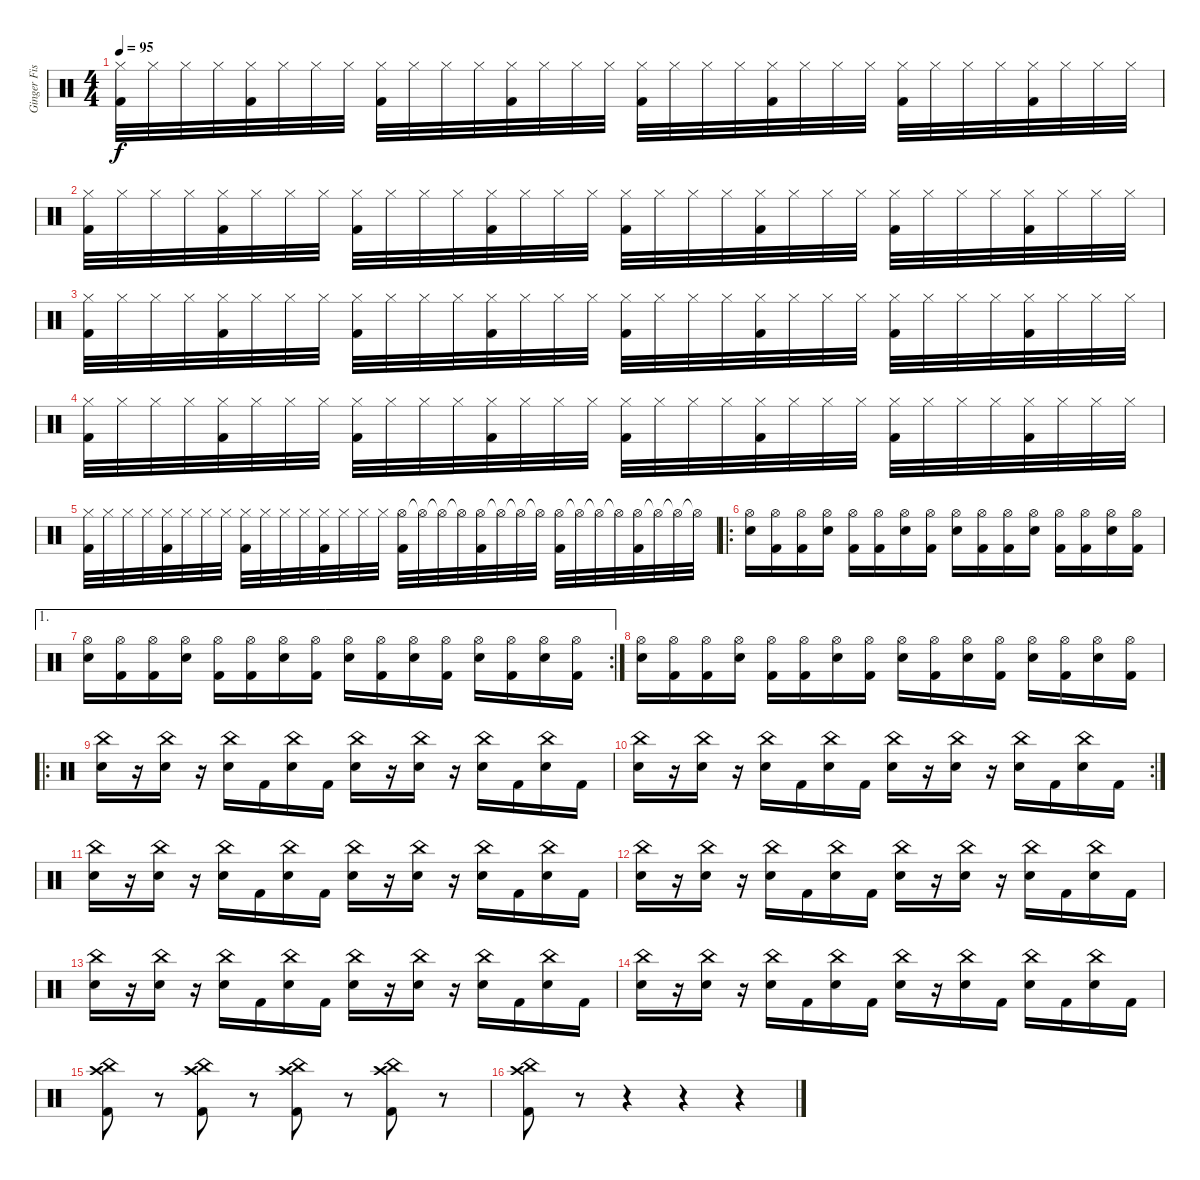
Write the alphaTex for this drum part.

\track ("Ginger Fish" "Ginger Fis") {instrument percussion}
\staff {score}
\articulation defaults
\ts (4 4)
\tempo 95
\clef neutral
\ks c
("Hi-Hat (closed)" "Kick (hit) 2").32{dy f} "Hi-Hat (closed)".32 "Hi-Hat (closed)".32 "Hi-Hat (closed)".32 ("Hi-Hat (closed)" "Kick (hit) 2").32 "Hi-Hat (closed)".32 "Hi-Hat (closed)".32 "Hi-Hat (closed)".32 ("Hi-Hat (closed)" "Kick (hit) 2").32 "Hi-Hat (closed)".32 "Hi-Hat (closed)".32 "Hi-Hat (closed)".32 ("Hi-Hat (closed)" "Kick (hit) 2").32 "Hi-Hat (closed)".32 "Hi-Hat (closed)".32 "Hi-Hat (closed)".32 ("Hi-Hat (closed)" "Kick (hit) 2").32 "Hi-Hat (closed)".32 "Hi-Hat (closed)".32 "Hi-Hat (closed)".32 ("Hi-Hat (closed)" "Kick (hit) 2").32 "Hi-Hat (closed)".32 "Hi-Hat (closed)".32 "Hi-Hat (closed)".32 ("Hi-Hat (closed)" "Kick (hit) 2").32 "Hi-Hat (closed)".32 "Hi-Hat (closed)".32 "Hi-Hat (closed)".32 ("Hi-Hat (closed)" "Kick (hit) 2").32 "Hi-Hat (closed)".32 "Hi-Hat (closed)".32 "Hi-Hat (closed)".32 |
("Hi-Hat (closed)" "Kick (hit) 2").32 "Hi-Hat (closed)".32 "Hi-Hat (closed)".32 "Hi-Hat (closed)".32 ("Hi-Hat (closed)" "Kick (hit) 2").32 "Hi-Hat (closed)".32 "Hi-Hat (closed)".32 "Hi-Hat (closed)".32 ("Hi-Hat (closed)" "Kick (hit) 2").32 "Hi-Hat (closed)".32 "Hi-Hat (closed)".32 "Hi-Hat (closed)".32 ("Hi-Hat (closed)" "Kick (hit) 2").32 "Hi-Hat (closed)".32 "Hi-Hat (closed)".32 "Hi-Hat (closed)".32 ("Hi-Hat (closed)" "Kick (hit) 2").32 "Hi-Hat (closed)".32 "Hi-Hat (closed)".32 "Hi-Hat (closed)".32 ("Hi-Hat (closed)" "Kick (hit) 2").32 "Hi-Hat (closed)".32 "Hi-Hat (closed)".32 "Hi-Hat (closed)".32 ("Hi-Hat (closed)" "Kick (hit) 2").32 "Hi-Hat (closed)".32 "Hi-Hat (closed)".32 "Hi-Hat (closed)".32 ("Hi-Hat (closed)" "Kick (hit) 2").32 "Hi-Hat (closed)".32 "Hi-Hat (closed)".32 "Hi-Hat (closed)".32 |
("Hi-Hat (closed)" "Kick (hit) 2").32 "Hi-Hat (closed)".32 "Hi-Hat (closed)".32 "Hi-Hat (closed)".32 ("Hi-Hat (closed)" "Kick (hit) 2").32 "Hi-Hat (closed)".32 "Hi-Hat (closed)".32 "Hi-Hat (closed)".32 ("Hi-Hat (closed)" "Kick (hit) 2").32 "Hi-Hat (closed)".32 "Hi-Hat (closed)".32 "Hi-Hat (closed)".32 ("Hi-Hat (closed)" "Kick (hit) 2").32 "Hi-Hat (closed)".32 "Hi-Hat (closed)".32 "Hi-Hat (closed)".32 ("Hi-Hat (closed)" "Kick (hit) 2").32 "Hi-Hat (closed)".32 "Hi-Hat (closed)".32 "Hi-Hat (closed)".32 ("Hi-Hat (closed)" "Kick (hit) 2").32 "Hi-Hat (closed)".32 "Hi-Hat (closed)".32 "Hi-Hat (closed)".32 ("Hi-Hat (closed)" "Kick (hit) 2").32 "Hi-Hat (closed)".32 "Hi-Hat (closed)".32 "Hi-Hat (closed)".32 ("Hi-Hat (closed)" "Kick (hit) 2").32 "Hi-Hat (closed)".32 "Hi-Hat (closed)".32 "Hi-Hat (closed)".32 |
("Hi-Hat (closed)" "Kick (hit) 2").32 "Hi-Hat (closed)".32 "Hi-Hat (closed)".32 "Hi-Hat (closed)".32 ("Hi-Hat (closed)" "Kick (hit) 2").32 "Hi-Hat (closed)".32 "Hi-Hat (closed)".32 "Hi-Hat (closed)".32 ("Hi-Hat (closed)" "Kick (hit) 2").32 "Hi-Hat (closed)".32 "Hi-Hat (closed)".32 "Hi-Hat (closed)".32 ("Hi-Hat (closed)" "Kick (hit) 2").32 "Hi-Hat (closed)".32 "Hi-Hat (closed)".32 "Hi-Hat (closed)".32 ("Hi-Hat (closed)" "Kick (hit) 2").32 "Hi-Hat (closed)".32 "Hi-Hat (closed)".32 "Hi-Hat (closed)".32 ("Hi-Hat (closed)" "Kick (hit) 2").32 "Hi-Hat (closed)".32 "Hi-Hat (closed)".32 "Hi-Hat (closed)".32 ("Hi-Hat (closed)" "Kick (hit) 2").32 "Hi-Hat (closed)".32 "Hi-Hat (closed)".32 "Hi-Hat (closed)".32 ("Hi-Hat (closed)" "Kick (hit) 2").32 "Hi-Hat (closed)".32 "Hi-Hat (closed)".32 "Hi-Hat (closed)".32 |
("Hi-Hat (closed)" "Kick (hit) 2").32 "Hi-Hat (closed)".32 "Hi-Hat (closed)".32 "Hi-Hat (closed)".32 ("Hi-Hat (closed)" "Kick (hit) 2").32 "Hi-Hat (closed)".32 "Hi-Hat (closed)".32 "Hi-Hat (closed)".32 ("Hi-Hat (closed)" "Kick (hit) 2").32 "Hi-Hat (closed)".32 "Hi-Hat (closed)".32 "Hi-Hat (closed)".32 ("Hi-Hat (closed)" "Kick (hit) 2").32 "Hi-Hat (closed)".32 "Hi-Hat (closed)".32 "Hi-Hat (closed)".32 ("Hi-Hat (open)" "Kick (hit) 2").32 "Hi-Hat (open)"{t}.32 "Hi-Hat (open)"{t}.32 "Hi-Hat (open)"{t}.32 ("Hi-Hat (open)" "Kick (hit) 2").32 "Hi-Hat (open)"{t}.32 "Hi-Hat (open)"{t}.32 "Hi-Hat (open)"{t}.32 ("Hi-Hat (open)" "Kick (hit) 2").32 "Hi-Hat (open)"{t}.32 "Hi-Hat (open)"{t}.32 "Hi-Hat (open)"{t}.32 ("Hi-Hat (open)" "Kick (hit) 2").32 "Hi-Hat (open)"{t}.32 "Hi-Hat (open)"{t}.32 "Hi-Hat (open)"{t}.32 |
\ro
("Hi-Hat (open)" "Electric Snare (hit)").16 ("Hi-Hat (open)" "Kick (hit) 2").16 ("Hi-Hat (open)" "Kick (hit) 2").16 ("Hi-Hat (open)" "Electric Snare (hit)").16 ("Hi-Hat (open)" "Kick (hit) 2").16 ("Hi-Hat (open)" "Kick (hit) 2").16 ("Hi-Hat (open)" "Electric Snare (hit)").16 ("Hi-Hat (open)" "Kick (hit) 2").16 ("Hi-Hat (open)" "Electric Snare (hit)").16 ("Hi-Hat (open)" "Kick (hit) 2").16 ("Hi-Hat (open)" "Kick (hit) 2").16 ("Hi-Hat (open)" "Electric Snare (hit)").16 ("Hi-Hat (open)" "Kick (hit) 2").16 ("Hi-Hat (open)" "Kick (hit) 2").16 ("Hi-Hat (open)" "Electric Snare (hit)").16 ("Hi-Hat (open)" "Kick (hit) 2").16 |
\ae 1
\rc 2
("Hi-Hat (open)" "Electric Snare (hit)").16 ("Hi-Hat (open)" "Kick (hit) 2").16 ("Hi-Hat (open)" "Kick (hit) 2").16 ("Hi-Hat (open)" "Electric Snare (hit)").16 ("Hi-Hat (open)" "Kick (hit) 2").16 ("Hi-Hat (open)" "Kick (hit) 2").16 ("Hi-Hat (open)" "Electric Snare (hit)").16 ("Hi-Hat (open)" "Kick (hit) 2").16 ("Hi-Hat (open)" "Electric Snare (hit)").16 ("Hi-Hat (open)" "Kick (hit) 2").16 ("Hi-Hat (open)" "Electric Snare (hit)").16 ("Hi-Hat (open)" "Kick (hit) 2").16 ("Hi-Hat (open)" "Electric Snare (hit)").16 ("Hi-Hat (open)" "Kick (hit) 2").16 ("Hi-Hat (open)" "Electric Snare (hit)").16 ("Hi-Hat (open)" "Kick (hit) 2").16 |
("Hi-Hat (open)" "Electric Snare (hit)").16 ("Hi-Hat (open)" "Kick (hit) 2").16 ("Hi-Hat (open)" "Kick (hit) 2").16 ("Hi-Hat (open)" "Electric Snare (hit)").16 ("Hi-Hat (open)" "Kick (hit) 2").16 ("Hi-Hat (open)" "Kick (hit) 2").16 ("Hi-Hat (open)" "Electric Snare (hit)").16 ("Hi-Hat (open)" "Kick (hit) 2").16 ("Hi-Hat (open)" "Electric Snare (hit)").16 ("Hi-Hat (open)" "Kick (hit) 2").16 ("Hi-Hat (open)" "Electric Snare (hit)").16 ("Hi-Hat (open)" "Kick (hit) 2").16 ("Hi-Hat (open)" "Electric Snare (hit)").16 ("Hi-Hat (open)" "Kick (hit) 2").16 ("Hi-Hat (open)" "Electric Snare (hit)").16 ("Hi-Hat (open)" "Kick (hit) 2").16 |
\ro
("China (hit)" "Electric Snare (hit)").16 r.16 ("China (hit)" "Electric Snare (hit)").16 r.16 ("China (hit)" "Electric Snare (hit)").16 "Kick (hit) 2".16 ("China (hit)" "Electric Snare (hit)").16 "Kick (hit) 2".16 ("China (hit)" "Electric Snare (hit)").16 r.16 ("China (hit)" "Electric Snare (hit)").16 r.16 ("China (hit)" "Electric Snare (hit)").16 "Kick (hit) 2".16 ("China (hit)" "Electric Snare (hit)").16 "Kick (hit) 2".16 |
\rc 2
("China (hit)" "Electric Snare (hit)").16 r.16 ("China (hit)" "Electric Snare (hit)").16 r.16 ("China (hit)" "Electric Snare (hit)").16 "Kick (hit) 2".16 ("China (hit)" "Electric Snare (hit)").16 "Kick (hit) 2".16 ("China (hit)" "Electric Snare (hit)").16 r.16 ("China (hit)" "Electric Snare (hit)").16 r.16 ("China (hit)" "Electric Snare (hit)").16 "Kick (hit) 2".16 ("China (hit)" "Electric Snare (hit)").16 "Kick (hit) 2".16 |
("China (hit)" "Electric Snare (hit)").16 r.16 ("China (hit)" "Electric Snare (hit)").16 r.16 ("China (hit)" "Electric Snare (hit)").16 "Kick (hit) 2".16 ("China (hit)" "Electric Snare (hit)").16 "Kick (hit) 2".16 ("China (hit)" "Electric Snare (hit)").16 r.16 ("China (hit)" "Electric Snare (hit)").16 r.16 ("China (hit)" "Electric Snare (hit)").16 "Kick (hit) 2".16 ("China (hit)" "Electric Snare (hit)").16 "Kick (hit) 2".16 |
("China (hit)" "Electric Snare (hit)").16 r.16 ("China (hit)" "Electric Snare (hit)").16 r.16 ("China (hit)" "Electric Snare (hit)").16 "Kick (hit) 2".16 ("China (hit)" "Electric Snare (hit)").16 "Kick (hit) 2".16 ("China (hit)" "Electric Snare (hit)").16 r.16 ("China (hit)" "Electric Snare (hit)").16 r.16 ("China (hit)" "Electric Snare (hit)").16 "Kick (hit) 2".16 ("China (hit)" "Electric Snare (hit)").16 "Kick (hit) 2".16 |
("China (hit)" "Electric Snare (hit)").16 r.16 ("China (hit)" "Electric Snare (hit)").16 r.16 ("China (hit)" "Electric Snare (hit)").16 "Kick (hit) 2".16 ("China (hit)" "Electric Snare (hit)").16 "Kick (hit) 2".16 ("China (hit)" "Electric Snare (hit)").16 r.16 ("China (hit)" "Electric Snare (hit)").16 r.16 ("China (hit)" "Electric Snare (hit)").16 "Kick (hit) 2".16 ("China (hit)" "Electric Snare (hit)").16 "Kick (hit) 2".16 |
("China (hit)" "Electric Snare (hit)").16 r.16 ("China (hit)" "Electric Snare (hit)").16 r.16 ("China (hit)" "Electric Snare (hit)").16 "Kick (hit) 2".16 ("China (hit)" "Electric Snare (hit)").16 "Kick (hit) 2".16 ("China (hit)" "Electric Snare (hit)").16 r.16 ("China (hit)" "Electric Snare (hit)").16 "Kick (hit) 2".16 ("China (hit)" "Electric Snare (hit)").16 "Kick (hit) 2".16 ("China (hit)" "Electric Snare (hit)").16 "Kick (hit) 2".16 |
("China (hit)" "Crash high (hit)" "Kick (hit) 2").8 r.8 ("China (hit)" "Crash high (hit)" "Kick (hit) 2").8 r.8 ("China (hit)" "Crash high (hit)" "Kick (hit) 2").8 r.8 ("China (hit)" "Crash high (hit)" "Kick (hit) 2").8 r.8 |
("China (hit)" "Crash high (hit)" "Kick (hit) 2").8 r.8 r.4 r.4 r.4
